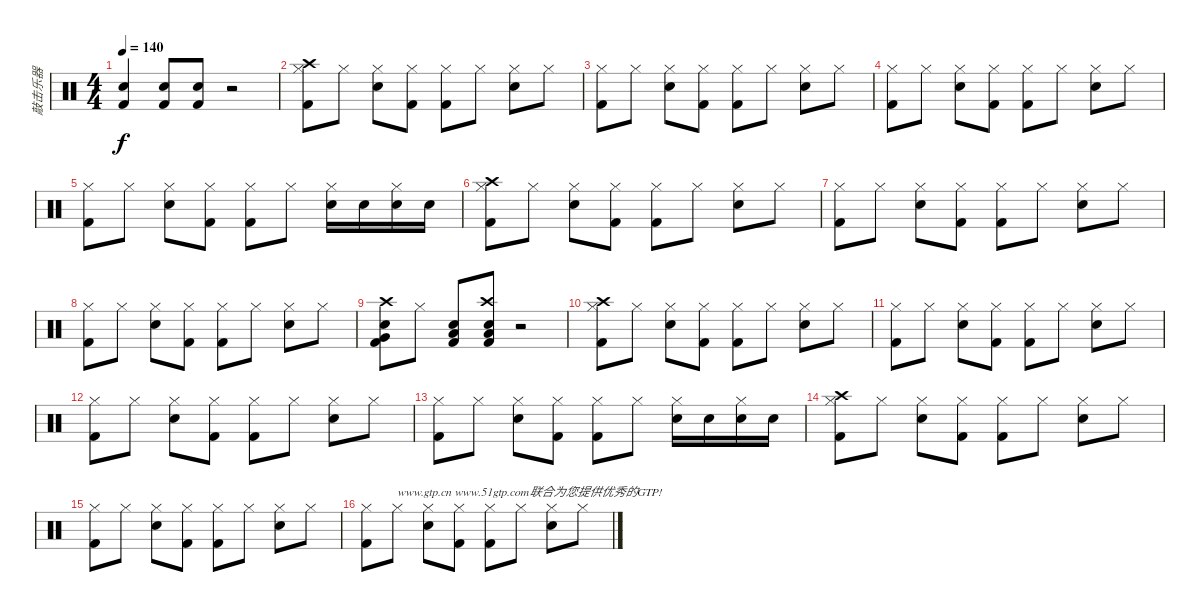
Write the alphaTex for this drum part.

\track ("敲击乐器" "敲击乐器") {instrument percussion}
\staff {score}
\articulation defaults
\ts (4 4)
\tempo 140
\clef neutral
\ks c
("Kick (hit) 2" "Electric Snare (hit)").4{dy f} ("Kick (hit) 2" "Electric Snare (hit)").8 ("Electric Snare (hit)" "Kick (hit) 2").8 r.2 |
("Kick (hit) 2" "Hi-Hat (closed)" "Crash high (hit)").8 "Hi-Hat (closed)".8 ("Hi-Hat (closed)" "Electric Snare (hit)").8 ("Hi-Hat (closed)" "Kick (hit) 2").8 ("Hi-Hat (closed)" "Kick (hit) 2").8 "Hi-Hat (closed)".8 ("Hi-Hat (closed)" "Electric Snare (hit)").8 "Hi-Hat (closed)".8 |
("Kick (hit) 2" "Hi-Hat (closed)").8 "Hi-Hat (closed)".8 ("Hi-Hat (closed)" "Electric Snare (hit)").8 ("Hi-Hat (closed)" "Kick (hit) 2").8 ("Hi-Hat (closed)" "Kick (hit) 2").8 "Hi-Hat (closed)".8 ("Hi-Hat (closed)" "Electric Snare (hit)").8 "Hi-Hat (closed)".8 |
("Kick (hit) 2" "Hi-Hat (closed)").8 "Hi-Hat (closed)".8 ("Hi-Hat (closed)" "Electric Snare (hit)").8 ("Hi-Hat (closed)" "Kick (hit) 2").8 ("Hi-Hat (closed)" "Kick (hit) 2").8 "Hi-Hat (closed)".8 ("Hi-Hat (closed)" "Electric Snare (hit)").8 "Hi-Hat (closed)".8 |
("Kick (hit) 2" "Hi-Hat (closed)").8 "Hi-Hat (closed)".8 ("Hi-Hat (closed)" "Electric Snare (hit)").8 ("Hi-Hat (closed)" "Kick (hit) 2").8 ("Hi-Hat (closed)" "Kick (hit) 2").8 "Hi-Hat (closed)".8 ("Hi-Hat (closed)" "Electric Snare (hit)").16 "Electric Snare (hit)".16 ("Hi-Hat (closed)" "Electric Snare (hit)").16 "Electric Snare (hit)".16 |
("Kick (hit) 2" "Hi-Hat (closed)" "Crash high (hit)").8 "Hi-Hat (closed)".8 ("Hi-Hat (closed)" "Electric Snare (hit)").8 ("Hi-Hat (closed)" "Kick (hit) 2").8 ("Hi-Hat (closed)" "Kick (hit) 2").8 "Hi-Hat (closed)".8 ("Hi-Hat (closed)" "Electric Snare (hit)").8 "Hi-Hat (closed)".8 |
("Kick (hit) 2" "Hi-Hat (closed)").8 "Hi-Hat (closed)".8 ("Hi-Hat (closed)" "Electric Snare (hit)").8 ("Hi-Hat (closed)" "Kick (hit) 2").8 ("Hi-Hat (closed)" "Kick (hit) 2").8 "Hi-Hat (closed)".8 ("Hi-Hat (closed)" "Electric Snare (hit)").8 "Hi-Hat (closed)".8 |
("Kick (hit) 2" "Hi-Hat (closed)").8 "Hi-Hat (closed)".8 ("Hi-Hat (closed)" "Electric Snare (hit)").8 ("Hi-Hat (closed)" "Kick (hit) 2").8 ("Hi-Hat (closed)" "Kick (hit) 2").8 "Hi-Hat (closed)".8 ("Hi-Hat (closed)" "Electric Snare (hit)").8 "Hi-Hat (closed)".8 |
("Electric Snare (hit)" "Very Low Tom (hit)" "Kick (hit) 2" "Crash high (hit)").8 "Hi-Hat (closed)".8 ("Low Floor Tom (hit)" "Electric Snare (hit)" "Kick (hit) 2").8 ("Electric Snare (hit)" "Low Floor Tom (hit)" "Kick (hit) 2" "Crash high (hit)").8 r.2 |
("Kick (hit) 2" "Hi-Hat (closed)" "Crash high (hit)").8 "Hi-Hat (closed)".8 ("Hi-Hat (closed)" "Electric Snare (hit)").8 ("Hi-Hat (closed)" "Kick (hit) 2").8 ("Hi-Hat (closed)" "Kick (hit) 2").8 "Hi-Hat (closed)".8 ("Hi-Hat (closed)" "Electric Snare (hit)").8 "Hi-Hat (closed)".8 |
("Kick (hit) 2" "Hi-Hat (closed)").8 "Hi-Hat (closed)".8 ("Hi-Hat (closed)" "Electric Snare (hit)").8 ("Hi-Hat (closed)" "Kick (hit) 2").8 ("Hi-Hat (closed)" "Kick (hit) 2").8 "Hi-Hat (closed)".8 ("Hi-Hat (closed)" "Electric Snare (hit)").8 "Hi-Hat (closed)".8 |
("Kick (hit) 2" "Hi-Hat (closed)").8 "Hi-Hat (closed)".8 ("Hi-Hat (closed)" "Electric Snare (hit)").8 ("Hi-Hat (closed)" "Kick (hit) 2").8 ("Hi-Hat (closed)" "Kick (hit) 2").8 "Hi-Hat (closed)".8 ("Hi-Hat (closed)" "Electric Snare (hit)").8 "Hi-Hat (closed)".8 |
("Kick (hit) 2" "Hi-Hat (closed)").8 "Hi-Hat (closed)".8 ("Hi-Hat (closed)" "Electric Snare (hit)").8 ("Hi-Hat (closed)" "Kick (hit) 2").8 ("Hi-Hat (closed)" "Kick (hit) 2").8 "Hi-Hat (closed)".8 ("Hi-Hat (closed)" "Electric Snare (hit)").16 "Electric Snare (hit)".16 ("Hi-Hat (closed)" "Electric Snare (hit)").16 "Electric Snare (hit)".16 |
("Kick (hit) 2" "Hi-Hat (closed)" "Crash high (hit)").8 "Hi-Hat (closed)".8 ("Hi-Hat (closed)" "Electric Snare (hit)").8 ("Hi-Hat (closed)" "Kick (hit) 2").8 ("Hi-Hat (closed)" "Kick (hit) 2").8 "Hi-Hat (closed)".8 ("Hi-Hat (closed)" "Electric Snare (hit)").8 "Hi-Hat (closed)".8 |
("Kick (hit) 2" "Hi-Hat (closed)").8 "Hi-Hat (closed)".8 ("Hi-Hat (closed)" "Electric Snare (hit)").8 ("Hi-Hat (closed)" "Kick (hit) 2").8 ("Hi-Hat (closed)" "Kick (hit) 2").8 "Hi-Hat (closed)".8 ("Hi-Hat (closed)" "Electric Snare (hit)").8 "Hi-Hat (closed)".8 |
("Kick (hit) 2" "Hi-Hat (closed)").8 "Hi-Hat (closed)".8{txt "www.gtp.cn www.51gtp.com联合为您提供优秀的GTP!"} ("Hi-Hat (closed)" "Electric Snare (hit)").8 ("Hi-Hat (closed)" "Kick (hit) 2").8 ("Hi-Hat (closed)" "Kick (hit) 2").8 "Hi-Hat (closed)".8 ("Hi-Hat (closed)" "Electric Snare (hit)").8 "Hi-Hat (closed)".8
